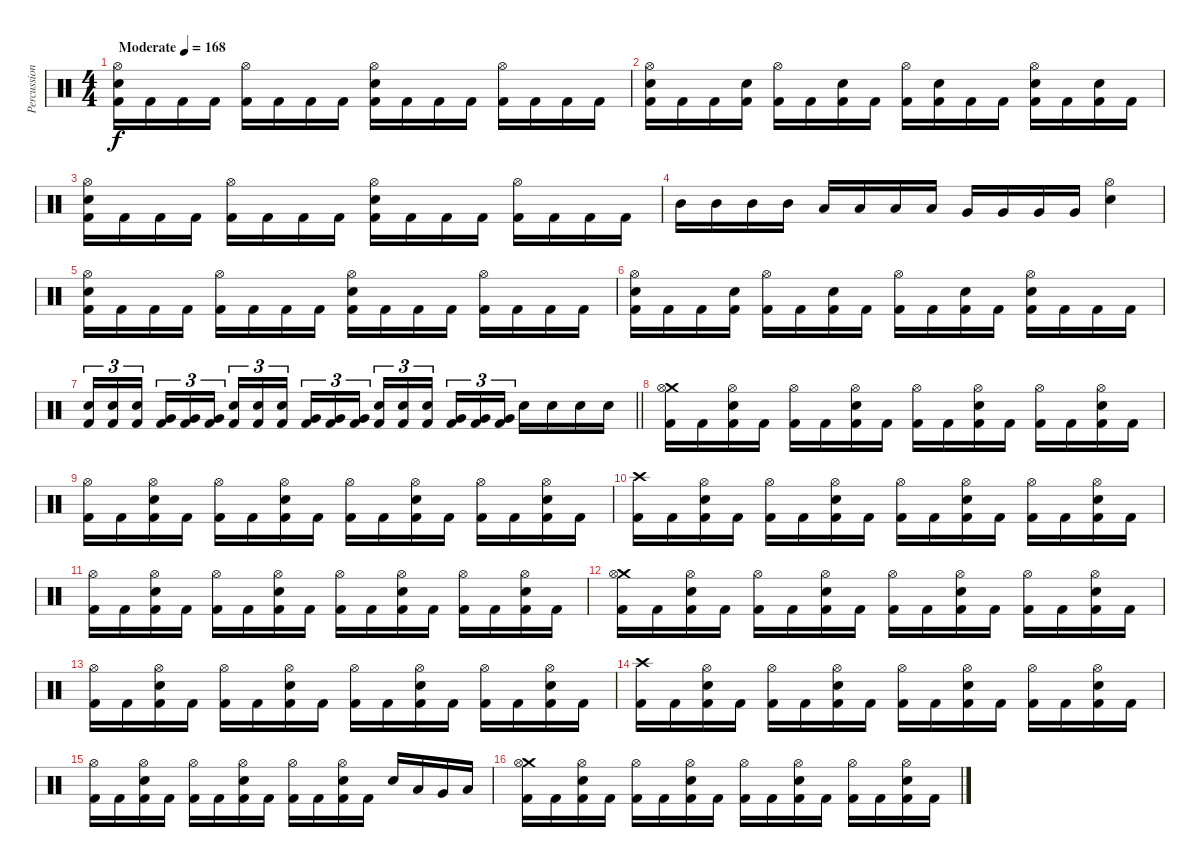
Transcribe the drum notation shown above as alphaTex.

\track ("Percussions" "Percussion") {instrument percussion}
\staff {score}
\articulation defaults
\ts (4 4)
\tempo (168 "Moderate")
\clef neutral
\ks c
("Hi-Hat (open)" "Snare (hit) 2" "Kick (hit) 2").16{dy f} "Kick (hit) 2".16 "Kick (hit) 2".16 "Kick (hit) 2".16 ("Hi-Hat (open)" "Kick (hit) 2").16 "Kick (hit) 2".16 "Kick (hit) 2".16 "Kick (hit) 2".16 ("Hi-Hat (open)" "Snare (hit) 2" "Kick (hit) 2").16 "Kick (hit) 2".16 "Kick (hit) 2".16 "Kick (hit) 2".16 ("Hi-Hat (open)" "Kick (hit) 2").16 "Kick (hit) 2".16 "Kick (hit) 2".16 "Kick (hit) 2".16 |
("Hi-Hat (open)" "Snare (hit) 2" "Kick (hit) 2").16 "Kick (hit) 2".16 "Kick (hit) 2".16 ("Snare (hit) 2" "Kick (hit) 2").16 ("Hi-Hat (open)" "Kick (hit) 2").16 "Kick (hit) 2".16 ("Snare (hit) 2" "Kick (hit) 2").16 "Kick (hit) 2".16 ("Hi-Hat (open)" "Kick (hit) 2").16 ("Snare (hit) 2" "Kick (hit) 2").16 "Kick (hit) 2".16 "Kick (hit) 2".16 ("Hi-Hat (open)" "Snare (hit) 2" "Kick (hit) 2").16 "Kick (hit) 2".16 ("Snare (hit) 2" "Kick (hit) 2").16 "Kick (hit) 2".16 |
("Hi-Hat (open)" "Snare (hit) 2" "Kick (hit) 2").16 "Kick (hit) 2".16 "Kick (hit) 2".16 "Kick (hit) 2".16 ("Hi-Hat (open)" "Kick (hit) 2").16 "Kick (hit) 2".16 "Kick (hit) 2".16 "Kick (hit) 2".16 ("Hi-Hat (open)" "Snare (hit) 2" "Kick (hit) 2").16 "Kick (hit) 2".16 "Kick (hit) 2".16 "Kick (hit) 2".16 ("Hi-Hat (open)" "Kick (hit) 2").16 "Kick (hit) 2".16 "Kick (hit) 2".16 "Kick (hit) 2".16 |
"Mid Tom (hit)".16 "Mid Tom (hit)".16 "Mid Tom (hit)".16 "Mid Tom (hit)".16 "Low Tom (hit)".16 "Low Tom (hit)".16 "Low Tom (hit)".16 "Low Tom (hit)".16 "Very Low Tom (hit)".16 "Very Low Tom (hit)".16 "Very Low Tom (hit)".16 "Very Low Tom (hit)".16 ("Hi-Hat (open)" "Snare (hit) 2").4 |
("Hi-Hat (open)" "Snare (hit) 2" "Kick (hit) 2").16 "Kick (hit) 2".16 "Kick (hit) 2".16 "Kick (hit) 2".16 ("Hi-Hat (open)" "Kick (hit) 2").16 "Kick (hit) 2".16 "Kick (hit) 2".16 "Kick (hit) 2".16 ("Hi-Hat (open)" "Snare (hit) 2" "Kick (hit) 2").16 "Kick (hit) 2".16 "Kick (hit) 2".16 "Kick (hit) 2".16 ("Hi-Hat (open)" "Kick (hit) 2").16 "Kick (hit) 2".16 "Kick (hit) 2".16 "Kick (hit) 2".16 |
("Hi-Hat (open)" "Snare (hit) 2" "Kick (hit) 2").16 "Kick (hit) 2".16 "Kick (hit) 2".16 ("Snare (hit) 2" "Kick (hit) 2").16 ("Hi-Hat (open)" "Kick (hit) 2").16 "Kick (hit) 2".16 ("Snare (hit) 2" "Kick (hit) 2").16 "Kick (hit) 2".16 ("Hi-Hat (open)" "Kick (hit) 2").16 "Kick (hit) 2".16 ("Snare (hit) 2" "Kick (hit) 2").16 "Kick (hit) 2".16 ("Hi-Hat (open)" "Snare (hit) 2" "Kick (hit) 2").16 "Kick (hit) 2".16 "Kick (hit) 2".16 "Kick (hit) 2".16 |
\barLineRight lightlight
("Snare (hit) 2" "Kick (hit) 2").16{tu (3 2)} ("Snare (hit) 2" "Kick (hit) 2").16{tu (3 2)} ("Snare (hit) 2" "Kick (hit) 2").16{tu (3 2) beam splitsecondary} ("Very Low Tom (hit)" "Kick (hit) 2").16{tu (3 2)} ("Very Low Tom (hit)" "Kick (hit) 2").16{tu (3 2)} ("Very Low Tom (hit)" "Kick (hit) 2").16{tu (3 2)} ("Snare (hit) 2" "Kick (hit) 2").16{tu (3 2)} ("Snare (hit) 2" "Kick (hit) 2").16{tu (3 2)} ("Snare (hit) 2" "Kick (hit) 2").16{tu (3 2) beam splitsecondary} ("Very Low Tom (hit)" "Kick (hit) 2").16{tu (3 2)} ("Very Low Tom (hit)" "Kick (hit) 2").16{tu (3 2)} ("Very Low Tom (hit)" "Kick (hit) 2").16{tu (3 2)} ("Snare (hit) 2" "Kick (hit) 2").16{tu (3 2)} ("Snare (hit) 2" "Kick (hit) 2").16{tu (3 2)} ("Snare (hit) 2" "Kick (hit) 2").16{tu (3 2) beam splitsecondary} ("Very Low Tom (hit)" "Kick (hit) 2").16{tu (3 2)} ("Very Low Tom (hit)" "Kick (hit) 2").16{tu (3 2)} ("Very Low Tom (hit)" "Kick (hit) 2").16{tu (3 2)} "Snare (hit) 2".16 "Snare (hit) 2".16 "Snare (hit) 2".16 "Snare (hit) 2".16 |
("Crash medium (hit)" "Hi-Hat (open)" "Kick (hit) 2").16 "Kick (hit) 2".16 ("Hi-Hat (open)" "Snare (hit) 2" "Kick (hit) 2").16 "Kick (hit) 2".16 ("Hi-Hat (open)" "Kick (hit) 2").16 "Kick (hit) 2".16 ("Hi-Hat (open)" "Snare (hit) 2" "Kick (hit) 2").16 "Kick (hit) 2".16 ("Hi-Hat (open)" "Kick (hit) 2").16 "Kick (hit) 2".16 ("Hi-Hat (open)" "Snare (hit) 2" "Kick (hit) 2").16 "Kick (hit) 2".16 ("Hi-Hat (open)" "Kick (hit) 2").16 "Kick (hit) 2".16 ("Hi-Hat (open)" "Snare (hit) 2" "Kick (hit) 2").16 "Kick (hit) 2".16 |
("Hi-Hat (open)" "Kick (hit) 2").16 "Kick (hit) 2".16 ("Hi-Hat (open)" "Snare (hit) 2" "Kick (hit) 2").16 "Kick (hit) 2".16 ("Hi-Hat (open)" "Kick (hit) 2").16 "Kick (hit) 2".16 ("Hi-Hat (open)" "Snare (hit) 2" "Kick (hit) 2").16 "Kick (hit) 2".16 ("Hi-Hat (open)" "Kick (hit) 2").16 "Kick (hit) 2".16 ("Hi-Hat (open)" "Snare (hit) 2" "Kick (hit) 2").16 "Kick (hit) 2".16 ("Hi-Hat (open)" "Kick (hit) 2").16 "Kick (hit) 2".16 ("Hi-Hat (open)" "Snare (hit) 2" "Kick (hit) 2").16 "Kick (hit) 2".16 |
("Crash high (hit)" "Kick (hit) 2").16 "Kick (hit) 2".16 ("Hi-Hat (open)" "Snare (hit) 2" "Kick (hit) 2").16 "Kick (hit) 2".16 ("Hi-Hat (open)" "Kick (hit) 2").16 "Kick (hit) 2".16 ("Hi-Hat (open)" "Snare (hit) 2" "Kick (hit) 2").16 "Kick (hit) 2".16 ("Hi-Hat (open)" "Kick (hit) 2").16 "Kick (hit) 2".16 ("Hi-Hat (open)" "Snare (hit) 2" "Kick (hit) 2").16 "Kick (hit) 2".16 ("Hi-Hat (open)" "Kick (hit) 2").16 "Kick (hit) 2".16 ("Hi-Hat (open)" "Snare (hit) 2" "Kick (hit) 2").16 "Kick (hit) 2".16 |
("Hi-Hat (open)" "Kick (hit) 2").16 "Kick (hit) 2".16 ("Hi-Hat (open)" "Snare (hit) 2" "Kick (hit) 2").16 "Kick (hit) 2".16 ("Hi-Hat (open)" "Kick (hit) 2").16 "Kick (hit) 2".16 ("Hi-Hat (open)" "Snare (hit) 2" "Kick (hit) 2").16 "Kick (hit) 2".16 ("Hi-Hat (open)" "Kick (hit) 2").16 "Kick (hit) 2".16 ("Hi-Hat (open)" "Snare (hit) 2" "Kick (hit) 2").16 "Kick (hit) 2".16 ("Hi-Hat (open)" "Kick (hit) 2").16 "Kick (hit) 2".16 ("Hi-Hat (open)" "Snare (hit) 2" "Kick (hit) 2").16 "Kick (hit) 2".16 |
("Crash medium (hit)" "Hi-Hat (open)" "Kick (hit) 2").16 "Kick (hit) 2".16 ("Hi-Hat (open)" "Snare (hit) 2" "Kick (hit) 2").16 "Kick (hit) 2".16 ("Hi-Hat (open)" "Kick (hit) 2").16 "Kick (hit) 2".16 ("Hi-Hat (open)" "Snare (hit) 2" "Kick (hit) 2").16 "Kick (hit) 2".16 ("Hi-Hat (open)" "Kick (hit) 2").16 "Kick (hit) 2".16 ("Hi-Hat (open)" "Snare (hit) 2" "Kick (hit) 2").16 "Kick (hit) 2".16 ("Hi-Hat (open)" "Kick (hit) 2").16 "Kick (hit) 2".16 ("Hi-Hat (open)" "Snare (hit) 2" "Kick (hit) 2").16 "Kick (hit) 2".16 |
("Hi-Hat (open)" "Kick (hit) 2").16 "Kick (hit) 2".16 ("Hi-Hat (open)" "Snare (hit) 2" "Kick (hit) 2").16 "Kick (hit) 2".16 ("Hi-Hat (open)" "Kick (hit) 2").16 "Kick (hit) 2".16 ("Hi-Hat (open)" "Snare (hit) 2" "Kick (hit) 2").16 "Kick (hit) 2".16 ("Hi-Hat (open)" "Kick (hit) 2").16 "Kick (hit) 2".16 ("Hi-Hat (open)" "Snare (hit) 2" "Kick (hit) 2").16 "Kick (hit) 2".16 ("Hi-Hat (open)" "Kick (hit) 2").16 "Kick (hit) 2".16 ("Hi-Hat (open)" "Snare (hit) 2" "Kick (hit) 2").16 "Kick (hit) 2".16 |
("Crash high (hit)" "Kick (hit) 2").16 "Kick (hit) 2".16 ("Hi-Hat (open)" "Snare (hit) 2" "Kick (hit) 2").16 "Kick (hit) 2".16 ("Hi-Hat (open)" "Kick (hit) 2").16 "Kick (hit) 2".16 ("Hi-Hat (open)" "Snare (hit) 2" "Kick (hit) 2").16 "Kick (hit) 2".16 ("Hi-Hat (open)" "Kick (hit) 2").16 "Kick (hit) 2".16 ("Hi-Hat (open)" "Snare (hit) 2" "Kick (hit) 2").16 "Kick (hit) 2".16 ("Hi-Hat (open)" "Kick (hit) 2").16 "Kick (hit) 2".16 ("Hi-Hat (open)" "Snare (hit) 2" "Kick (hit) 2").16 "Kick (hit) 2".16 |
("Hi-Hat (open)" "Kick (hit) 2").16 "Kick (hit) 2".16 ("Hi-Hat (open)" "Snare (hit) 2" "Kick (hit) 2").16 "Kick (hit) 2".16 ("Hi-Hat (open)" "Kick (hit) 2").16 "Kick (hit) 2".16 ("Hi-Hat (open)" "Snare (hit) 2" "Kick (hit) 2").16 "Kick (hit) 2".16 ("Hi-Hat (open)" "Kick (hit) 2").16 "Kick (hit) 2".16 ("Hi-Hat (open)" "Snare (hit) 2" "Kick (hit) 2").16 "Kick (hit) 2".16 "Snare (hit) 2".16 "Low Tom (hit)".16 "Very Low Tom (hit)".16 "Low Floor Tom (hit)".16 |
("Crash medium (hit)" "Hi-Hat (open)" "Kick (hit) 2").16 "Kick (hit) 2".16 ("Hi-Hat (open)" "Snare (hit) 2" "Kick (hit) 2").16 "Kick (hit) 2".16 ("Hi-Hat (open)" "Kick (hit) 2").16 "Kick (hit) 2".16 ("Hi-Hat (open)" "Snare (hit) 2" "Kick (hit) 2").16 "Kick (hit) 2".16 ("Hi-Hat (open)" "Kick (hit) 2").16 "Kick (hit) 2".16 ("Hi-Hat (open)" "Snare (hit) 2" "Kick (hit) 2").16 "Kick (hit) 2".16 ("Hi-Hat (open)" "Kick (hit) 2").16 "Kick (hit) 2".16 ("Hi-Hat (open)" "Snare (hit) 2" "Kick (hit) 2").16 "Kick (hit) 2".16
